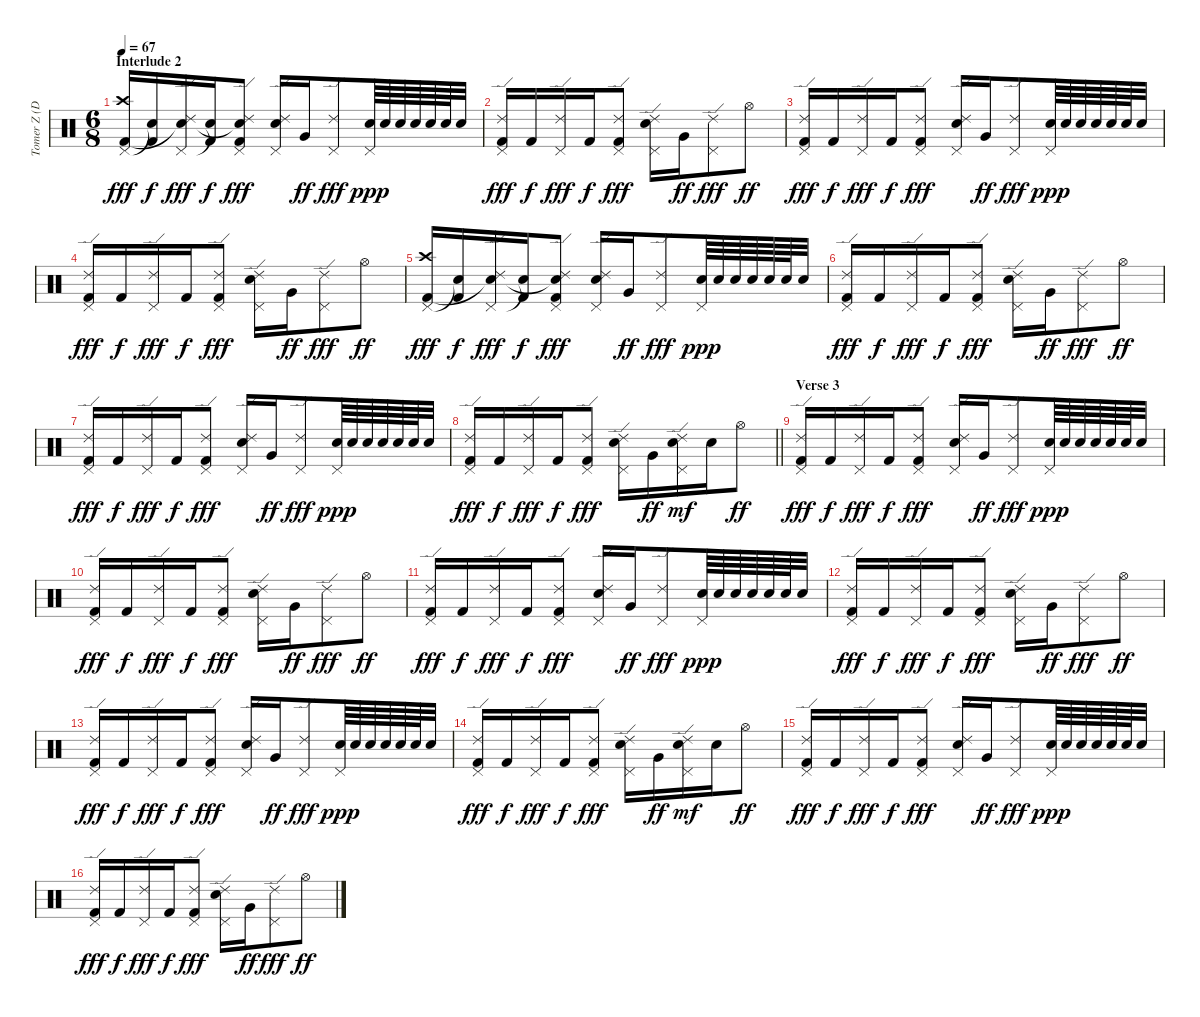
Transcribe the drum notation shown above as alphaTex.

\track ("Tomer Z (Drums)" "Tomer Z (D") {instrument percussion}
\staff {score}
\articulation defaults
\ts (6 8)
\section ("" "Interlude 2")
\tempo 67
\clef neutral
\ks c
("Pedal Hi-Hat (hit)" "Crash high (hit)" "Kick (hit) 2").16{dy fff} ("Snare (hit) 2"{t} "Kick (hit) 2").16{dy f} ("Pedal Hi-Hat (hit)" "Ride (edge) 2" "Snare (hit) 2"{t}).16{dy fff} ("Snare (hit) 2"{t} "Kick (hit) 2").16{dy f} ("Pedal Hi-Hat (hit)" "Ride (edge) 2" "Snare (hit) 2"{t} "Kick (hit) 2").8{dy fff} ("Pedal Hi-Hat (hit)" "Ride (edge) 2" "Snare (hit) 2").16 "Very Low Tom (hit)".16{dy ff} ("Pedal Hi-Hat (hit)" "Ride (edge) 2").8{dy fff} ("Pedal Hi-Hat (hit)" "Snare (hit) 2").64{dy ppp} "Snare (hit) 2".64 "Snare (hit) 2".64 "Snare (hit) 2".64 "Snare (hit) 2".64 "Snare (hit) 2".64 "Snare (hit) 2".32 |
("Pedal Hi-Hat (hit)" "Ride (edge) 2" "Kick (hit) 2").16{dy fff} "Kick (hit) 2".16{dy f} ("Pedal Hi-Hat (hit)" "Ride (edge) 2").16{dy fff} "Kick (hit) 2".16{dy f} ("Pedal Hi-Hat (hit)" "Ride (edge) 2" "Kick (hit) 2").8{dy fff} ("Pedal Hi-Hat (hit)" "Ride (edge) 2" "Snare (hit) 2").16 "Very Low Tom (hit)".16{dy ff} ("Pedal Hi-Hat (hit)" "Ride (edge) 2").8{dy fff} "Hi-Hat (open)".8{dy ff} |
("Pedal Hi-Hat (hit)" "Ride (edge) 2" "Kick (hit) 2").16{dy fff} "Kick (hit) 2".16{dy f} ("Pedal Hi-Hat (hit)" "Ride (edge) 2").16{dy fff} "Kick (hit) 2".16{dy f} ("Pedal Hi-Hat (hit)" "Ride (edge) 2" "Kick (hit) 2").8{dy fff} ("Pedal Hi-Hat (hit)" "Ride (edge) 2" "Snare (hit) 2").16 "Very Low Tom (hit)".16{dy ff} ("Pedal Hi-Hat (hit)" "Ride (edge) 2").8{dy fff} ("Pedal Hi-Hat (hit)" "Snare (hit) 2").64{dy ppp} "Snare (hit) 2".64 "Snare (hit) 2".64 "Snare (hit) 2".64 "Snare (hit) 2".64 "Snare (hit) 2".64 "Snare (hit) 2".32 |
("Pedal Hi-Hat (hit)" "Ride (edge) 2" "Kick (hit) 2").16{dy fff} "Kick (hit) 2".16{dy f} ("Pedal Hi-Hat (hit)" "Ride (edge) 2").16{dy fff} "Kick (hit) 2".16{dy f} ("Pedal Hi-Hat (hit)" "Ride (edge) 2" "Kick (hit) 2").8{dy fff} ("Pedal Hi-Hat (hit)" "Ride (edge) 2" "Snare (hit) 2").16 "Very Low Tom (hit)".16{dy ff} ("Pedal Hi-Hat (hit)" "Ride (edge) 2").8{dy fff} "Hi-Hat (open)".8{dy ff} |
("Pedal Hi-Hat (hit)" "Crash high (hit)" "Kick (hit) 2").16{dy fff} ("Snare (hit)"{t} "Kick (hit) 2").16{dy f} ("Pedal Hi-Hat (hit)" "Ride (edge) 2" "Snare (hit)"{t}).16{dy fff} ("Snare (hit)"{t} "Kick (hit) 2").16{dy f} ("Pedal Hi-Hat (hit)" "Ride (edge) 2" "Snare (hit)"{t} "Kick (hit) 2").8{dy fff} ("Pedal Hi-Hat (hit)" "Ride (edge) 2" "Snare (hit) 2").16 "Very Low Tom (hit)".16{dy ff} ("Pedal Hi-Hat (hit)" "Ride (edge) 2").8{dy fff} ("Pedal Hi-Hat (hit)" "Snare (hit) 2").64{dy ppp} "Snare (hit) 2".64 "Snare (hit) 2".64 "Snare (hit) 2".64 "Snare (hit) 2".64 "Snare (hit) 2".64 "Snare (hit) 2".32 |
("Pedal Hi-Hat (hit)" "Ride (edge) 2" "Kick (hit) 2").16{dy fff} "Kick (hit) 2".16{dy f} ("Pedal Hi-Hat (hit)" "Ride (edge) 2").16{dy fff} "Kick (hit) 2".16{dy f} ("Pedal Hi-Hat (hit)" "Ride (edge) 2" "Kick (hit) 2").8{dy fff} ("Pedal Hi-Hat (hit)" "Ride (edge) 2" "Snare (hit) 2").16 "Very Low Tom (hit)".16{dy ff} ("Pedal Hi-Hat (hit)" "Ride (edge) 2").8{dy fff} "Hi-Hat (open)".8{dy ff} |
("Pedal Hi-Hat (hit)" "Ride (edge) 2" "Kick (hit) 2").16{dy fff} "Kick (hit) 2".16{dy f} ("Pedal Hi-Hat (hit)" "Ride (edge) 2").16{dy fff} "Kick (hit) 2".16{dy f} ("Pedal Hi-Hat (hit)" "Ride (edge) 2" "Kick (hit) 2").8{dy fff} ("Pedal Hi-Hat (hit)" "Ride (edge) 2" "Snare (hit) 2").16 "Very Low Tom (hit)".16{dy ff} ("Pedal Hi-Hat (hit)" "Ride (edge) 2").8{dy fff} ("Pedal Hi-Hat (hit)" "Snare (hit) 2").64{dy ppp} "Snare (hit) 2".64 "Snare (hit) 2".64 "Snare (hit) 2".64 "Snare (hit) 2".64 "Snare (hit) 2".64 "Snare (hit) 2".32 |
\barLineRight lightlight
("Pedal Hi-Hat (hit)" "Ride (edge) 2" "Kick (hit) 2").16{dy fff} "Kick (hit) 2".16{dy f} ("Pedal Hi-Hat (hit)" "Ride (edge) 2").16{dy fff} "Kick (hit) 2".16{dy f} ("Pedal Hi-Hat (hit)" "Ride (edge) 2" "Kick (hit) 2").8{dy fff} ("Pedal Hi-Hat (hit)" "Ride (edge) 2" "Snare (hit) 2").16 "Very Low Tom (hit)".16{dy ff} ("Pedal Hi-Hat (hit)" "Ride (edge) 2" "Snare (hit) 2").16{dy mf} "Snare (hit) 2".16 "Hi-Hat (open)".8{dy ff} |
\section ("" "Verse 3")
("Pedal Hi-Hat (hit)" "Ride (edge) 2" "Kick (hit) 2").16{dy fff} "Kick (hit) 2".16{dy f} ("Pedal Hi-Hat (hit)" "Ride (edge) 2").16{dy fff} "Kick (hit) 2".16{dy f} ("Pedal Hi-Hat (hit)" "Ride (edge) 2" "Kick (hit) 2").8{dy fff} ("Pedal Hi-Hat (hit)" "Ride (edge) 2" "Snare (hit) 2").16 "Very Low Tom (hit)".16{dy ff} ("Pedal Hi-Hat (hit)" "Ride (edge) 2").8{dy fff} ("Pedal Hi-Hat (hit)" "Snare (hit) 2").64{dy ppp} "Snare (hit) 2".64 "Snare (hit) 2".64 "Snare (hit) 2".64 "Snare (hit) 2".64 "Snare (hit) 2".64 "Snare (hit) 2".32 |
("Pedal Hi-Hat (hit)" "Ride (edge) 2" "Kick (hit) 2").16{dy fff} "Kick (hit) 2".16{dy f} ("Pedal Hi-Hat (hit)" "Ride (edge) 2").16{dy fff} "Kick (hit) 2".16{dy f} ("Pedal Hi-Hat (hit)" "Ride (edge) 2" "Kick (hit) 2").8{dy fff} ("Pedal Hi-Hat (hit)" "Ride (edge) 2" "Snare (hit) 2").16 "Very Low Tom (hit)".16{dy ff} ("Pedal Hi-Hat (hit)" "Ride (edge) 2").8{dy fff} "Hi-Hat (open)".8{dy ff} |
("Pedal Hi-Hat (hit)" "Ride (edge) 2" "Kick (hit) 2").16{dy fff} "Kick (hit) 2".16{dy f} ("Pedal Hi-Hat (hit)" "Ride (edge) 2").16{dy fff} "Kick (hit) 2".16{dy f} ("Pedal Hi-Hat (hit)" "Ride (edge) 2" "Kick (hit) 2").8{dy fff} ("Pedal Hi-Hat (hit)" "Ride (edge) 2" "Snare (hit) 2").16 "Very Low Tom (hit)".16{dy ff} ("Pedal Hi-Hat (hit)" "Ride (edge) 2").8{dy fff} ("Pedal Hi-Hat (hit)" "Snare (hit) 2").64{dy ppp} "Snare (hit) 2".64 "Snare (hit) 2".64 "Snare (hit) 2".64 "Snare (hit) 2".64 "Snare (hit) 2".64 "Snare (hit) 2".32 |
("Pedal Hi-Hat (hit)" "Ride (edge) 2" "Kick (hit) 2").16{dy fff} "Kick (hit) 2".16{dy f} ("Pedal Hi-Hat (hit)" "Ride (edge) 2").16{dy fff} "Kick (hit) 2".16{dy f} ("Pedal Hi-Hat (hit)" "Ride (edge) 2" "Kick (hit) 2").8{dy fff} ("Pedal Hi-Hat (hit)" "Ride (edge) 2" "Snare (hit) 2").16 "Very Low Tom (hit)".16{dy ff} ("Pedal Hi-Hat (hit)" "Ride (edge) 2").8{dy fff} "Hi-Hat (open)".8{dy ff} |
("Pedal Hi-Hat (hit)" "Ride (edge) 2" "Kick (hit) 2").16{dy fff} "Kick (hit) 2".16{dy f} ("Pedal Hi-Hat (hit)" "Ride (edge) 2").16{dy fff} "Kick (hit) 2".16{dy f} ("Pedal Hi-Hat (hit)" "Ride (edge) 2" "Kick (hit) 2").8{dy fff} ("Pedal Hi-Hat (hit)" "Ride (edge) 2" "Snare (hit) 2").16 "Very Low Tom (hit)".16{dy ff} ("Pedal Hi-Hat (hit)" "Ride (edge) 2").8{dy fff} ("Pedal Hi-Hat (hit)" "Snare (hit) 2").64{dy ppp} "Snare (hit) 2".64 "Snare (hit) 2".64 "Snare (hit) 2".64 "Snare (hit) 2".64 "Snare (hit) 2".64 "Snare (hit) 2".32 |
("Pedal Hi-Hat (hit)" "Ride (edge) 2" "Kick (hit) 2").16{dy fff} "Kick (hit) 2".16{dy f} ("Pedal Hi-Hat (hit)" "Ride (edge) 2").16{dy fff} "Kick (hit) 2".16{dy f} ("Pedal Hi-Hat (hit)" "Ride (edge) 2" "Kick (hit) 2").8{dy fff} ("Pedal Hi-Hat (hit)" "Ride (edge) 2" "Snare (hit) 2").16 "Very Low Tom (hit)".16{dy ff} ("Pedal Hi-Hat (hit)" "Ride (edge) 2" "Snare (hit) 2").16{dy mf} "Snare (hit) 2".16 "Hi-Hat (open)".8{dy ff} |
("Pedal Hi-Hat (hit)" "Ride (edge) 2" "Kick (hit) 2").16{dy fff} "Kick (hit) 2".16{dy f} ("Pedal Hi-Hat (hit)" "Ride (edge) 2").16{dy fff} "Kick (hit) 2".16{dy f} ("Pedal Hi-Hat (hit)" "Ride (edge) 2" "Kick (hit) 2").8{dy fff} ("Pedal Hi-Hat (hit)" "Ride (edge) 2" "Snare (hit) 2").16 "Very Low Tom (hit)".16{dy ff} ("Pedal Hi-Hat (hit)" "Ride (edge) 2").8{dy fff} ("Pedal Hi-Hat (hit)" "Snare (hit) 2").64{dy ppp} "Snare (hit) 2".64 "Snare (hit) 2".64 "Snare (hit) 2".64 "Snare (hit) 2".64 "Snare (hit) 2".64 "Snare (hit) 2".32 |
("Pedal Hi-Hat (hit)" "Ride (edge) 2" "Kick (hit) 2").16{dy fff} "Kick (hit) 2".16{dy f} ("Pedal Hi-Hat (hit)" "Ride (edge) 2").16{dy fff} "Kick (hit) 2".16{dy f} ("Pedal Hi-Hat (hit)" "Ride (edge) 2" "Kick (hit) 2").8{dy fff} ("Pedal Hi-Hat (hit)" "Ride (edge) 2" "Snare (hit) 2").16 "Very Low Tom (hit)".16{dy ff} ("Pedal Hi-Hat (hit)" "Ride (edge) 2").8{dy fff} "Hi-Hat (open)".8{dy ff}
